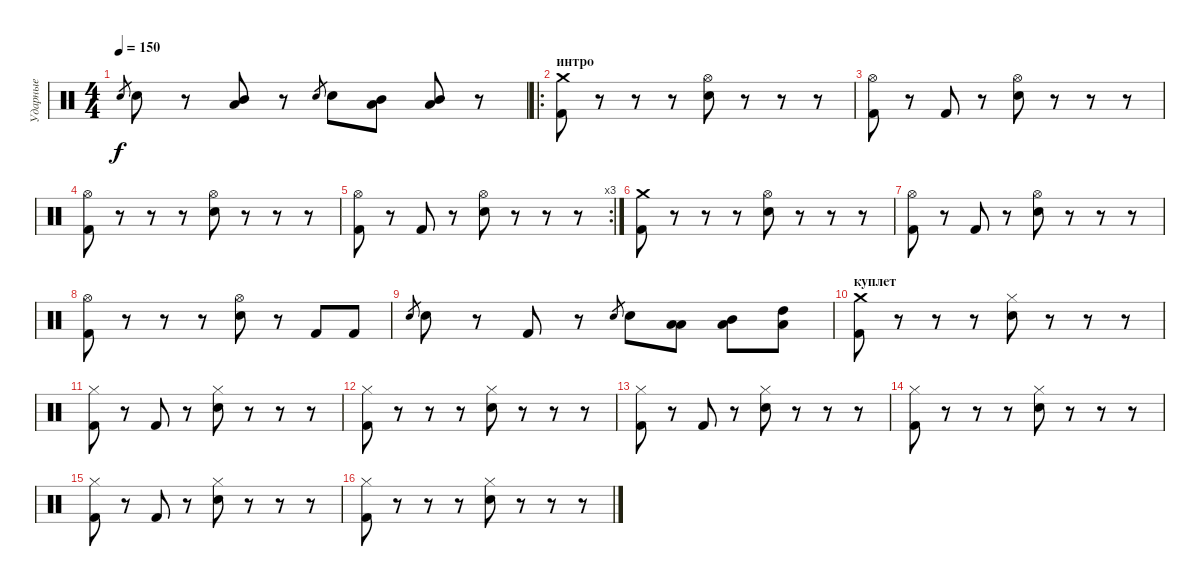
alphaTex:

\track ("Ударные" "Ударные") {instrument percussion}
\staff {score}
\articulation defaults
\ts (4 4)
\tempo 150
\clef neutral
\ks c "Electric Snare (hit)".8{gr dy f} "Electric Snare (hit)".8
r.8 ("Low Tom (hit)" "Mid Tom (hit)").8 r.8 "Electric Snare (hit)".8{gr} "Electric Snare (hit)".8 ("Low Tom (hit)" "Mid Tom (hit)").8 ("Low Tom (hit)" "Mid Tom (hit)").8 r.8 |
\ro
\section ("" "интро")
("Crash medium (hit)" "Kick (hit) 2").8 r.8 r.8 r.8 ("Hi-Hat (open)" "Electric Snare (hit)").8 r.8 r.8 r.8 |
("Hi-Hat (open)" "Kick (hit) 2").8 r.8 "Kick (hit) 2".8 r.8 ("Hi-Hat (open)" "Electric Snare (hit)").8 r.8 r.8 r.8 |
("Hi-Hat (open)" "Kick (hit) 2").8 r.8 r.8 r.8 ("Hi-Hat (open)" "Electric Snare (hit)").8 r.8 r.8 r.8 |
\rc 3
("Hi-Hat (open)" "Kick (hit) 2").8 r.8 "Kick (hit) 2".8 r.8 ("Hi-Hat (open)" "Electric Snare (hit)").8 r.8 r.8 r.8 |
("Crash medium (hit)" "Kick (hit) 2").8 r.8 r.8 r.8 ("Hi-Hat (open)" "Electric Snare (hit)").8 r.8 r.8 r.8 |
("Hi-Hat (open)" "Kick (hit) 2").8 r.8 "Kick (hit) 2".8 r.8 ("Hi-Hat (open)" "Electric Snare (hit)").8 r.8 r.8 r.8 |
("Hi-Hat (open)" "Kick (hit) 2").8 r.8 r.8 r.8 ("Hi-Hat (open)" "Electric Snare (hit)").8 r.8 "Kick (hit) 2".8 "Kick (hit) 2".8 |
"Electric Snare (hit)".8{gr} "Electric Snare (hit)".8 r.8 "Kick (hit) 2".8 r.8 "Electric Snare (hit)".8{gr} "Electric Snare (hit)".8 ("Low Tom (hit)" "Low Tom (hit)").8 ("Low Tom (hit)" "Mid Tom (hit)").8 ("Low Tom (hit)" "High Tom (hit)").8 |
\section ("" "куплет")
("Crash medium (hit)" "Kick (hit) 2").8 r.8 r.8 r.8 ("Hi-Hat (closed)" "Electric Snare (hit)").8 r.8 r.8 r.8 |
("Hi-Hat (closed)" "Kick (hit) 2").8 r.8 "Kick (hit) 2".8 r.8 ("Hi-Hat (closed)" "Electric Snare (hit)").8 r.8 r.8 r.8 |
("Hi-Hat (closed)" "Kick (hit) 2").8 r.8 r.8 r.8 ("Hi-Hat (closed)" "Electric Snare (hit)").8 r.8 r.8 r.8 |
("Hi-Hat (closed)" "Kick (hit) 2").8 r.8 "Kick (hit) 2".8 r.8 ("Hi-Hat (closed)" "Electric Snare (hit)").8 r.8 r.8 r.8 |
("Hi-Hat (closed)" "Kick (hit) 2").8 r.8 r.8 r.8 ("Hi-Hat (closed)" "Electric Snare (hit)").8 r.8 r.8 r.8 |
("Hi-Hat (closed)" "Kick (hit) 2").8 r.8 "Kick (hit) 2".8 r.8 ("Hi-Hat (closed)" "Electric Snare (hit)").8 r.8 r.8 r.8 |
("Hi-Hat (closed)" "Kick (hit) 2").8 r.8 r.8 r.8 ("Hi-Hat (closed)" "Electric Snare (hit)").8 r.8 r.8 r.8
